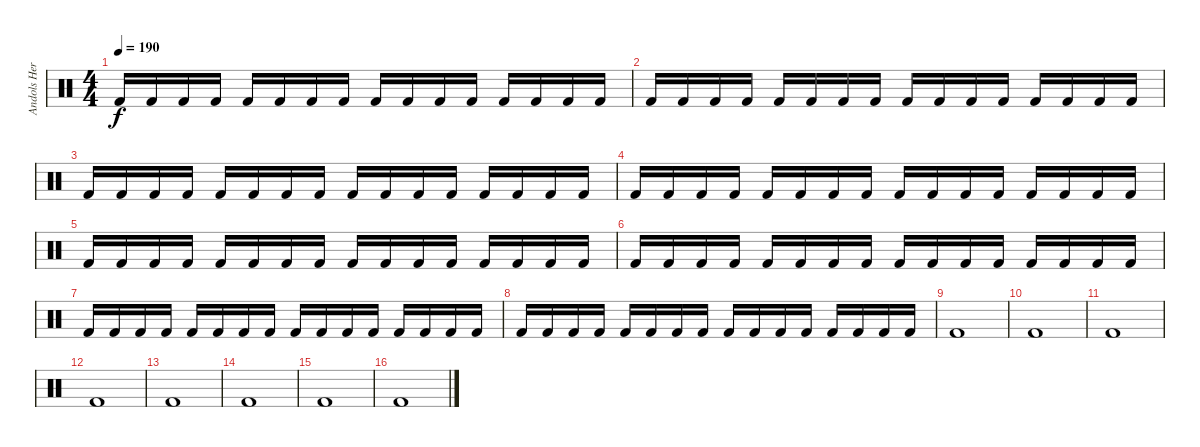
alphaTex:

\track ("Andols Herrick [KICK]" "Andols Her") {instrument percussion}
\staff {score}
\articulation defaults
\ts (4 4)
\tempo 190
\clef neutral
\ks c "Kick (hit) 2".16{dy f} "Kick (hit) 2".16 "Kick (hit) 2".16 "Kick (hit) 2".16 "Kick (hit) 2".16 "Kick (hit) 2".16 "Kick (hit) 2".16 "Kick (hit) 2".16 "Kick (hit) 2".16 "Kick (hit) 2".16 "Kick (hit) 2".16 "Kick (hit) 2".16 "Kick (hit) 2".16 "Kick (hit) 2".16 "Kick (hit) 2".16 "Kick (hit) 2".16
|
"Kick (hit) 2".16 "Kick (hit) 2".16 "Kick (hit) 2".16 "Kick (hit) 2".16 "Kick (hit) 2".16 "Kick (hit) 2".16 "Kick (hit) 2".16 "Kick (hit) 2".16 "Kick (hit) 2".16 "Kick (hit) 2".16 "Kick (hit) 2".16 "Kick (hit) 2".16 "Kick (hit) 2".16 "Kick (hit) 2".16 "Kick (hit) 2".16 "Kick (hit) 2".16 |
"Kick (hit) 2".16 "Kick (hit) 2".16 "Kick (hit) 2".16 "Kick (hit) 2".16 "Kick (hit) 2".16 "Kick (hit) 2".16 "Kick (hit) 2".16 "Kick (hit) 2".16 "Kick (hit) 2".16 "Kick (hit) 2".16 "Kick (hit) 2".16 "Kick (hit) 2".16 "Kick (hit) 2".16 "Kick (hit) 2".16 "Kick (hit) 2".16 "Kick (hit) 2".16 |
"Kick (hit) 2".16 "Kick (hit) 2".16 "Kick (hit) 2".16 "Kick (hit) 2".16 "Kick (hit) 2".16 "Kick (hit) 2".16 "Kick (hit) 2".16 "Kick (hit) 2".16 "Kick (hit) 2".16 "Kick (hit) 2".16 "Kick (hit) 2".16 "Kick (hit) 2".16 "Kick (hit) 2".16 "Kick (hit) 2".16 "Kick (hit) 2".16 "Kick (hit) 2".16 |
"Kick (hit) 2".16 "Kick (hit) 2".16 "Kick (hit) 2".16 "Kick (hit) 2".16 "Kick (hit) 2".16 "Kick (hit) 2".16 "Kick (hit) 2".16 "Kick (hit) 2".16 "Kick (hit) 2".16 "Kick (hit) 2".16 "Kick (hit) 2".16 "Kick (hit) 2".16 "Kick (hit) 2".16 "Kick (hit) 2".16 "Kick (hit) 2".16 "Kick (hit) 2".16 |
"Kick (hit) 2".16 "Kick (hit) 2".16 "Kick (hit) 2".16 "Kick (hit) 2".16 "Kick (hit) 2".16 "Kick (hit) 2".16 "Kick (hit) 2".16 "Kick (hit) 2".16 "Kick (hit) 2".16 "Kick (hit) 2".16 "Kick (hit) 2".16 "Kick (hit) 2".16 "Kick (hit) 2".16 "Kick (hit) 2".16 "Kick (hit) 2".16 "Kick (hit) 2".16 |
"Kick (hit) 2".16 "Kick (hit) 2".16 "Kick (hit) 2".16 "Kick (hit) 2".16 "Kick (hit) 2".16 "Kick (hit) 2".16 "Kick (hit) 2".16 "Kick (hit) 2".16 "Kick (hit) 2".16 "Kick (hit) 2".16 "Kick (hit) 2".16 "Kick (hit) 2".16 "Kick (hit) 2".16 "Kick (hit) 2".16 "Kick (hit) 2".16 "Kick (hit) 2".16 |
"Kick (hit) 2".16 "Kick (hit) 2".16 "Kick (hit) 2".16 "Kick (hit) 2".16 "Kick (hit) 2".16 "Kick (hit) 2".16 "Kick (hit) 2".16 "Kick (hit) 2".16 "Kick (hit) 2".16 "Kick (hit) 2".16 "Kick (hit) 2".16 "Kick (hit) 2".16 "Kick (hit) 2".16 "Kick (hit) 2".16 "Kick (hit) 2".16 "Kick (hit) 2".16 |
"Kick (hit) 2".1 |
"Kick (hit) 2".1 |
"Kick (hit) 2".1 |
"Kick (hit) 2".1 |
"Kick (hit) 2".1 |
"Kick (hit) 2".1 |
"Kick (hit) 2".1 |
"Kick (hit) 2".1
